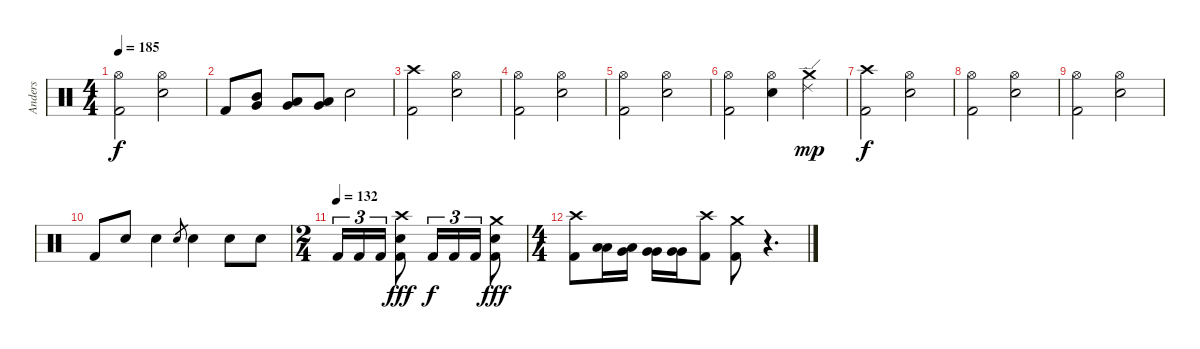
\track ("Anders" "Anders") {instrument percussion}
\staff {score}
\articulation defaults
\ts (4 4)
\tempo 185
\clef neutral
\ks c
("Hi-Hat (open)" "Kick (hit) 2").2{dy f} ("Hi-Hat (open)" "Electric Snare (hit)").2 |
"Kick (hit) 2".8 ("Mid Tom (hit)" "Very Low Tom (hit)").8 ("Low Tom (hit)" "Very Low Tom (hit)").8 ("Low Floor Tom (hit)" "Very Low Tom (hit)").8 "Electric Snare (hit)".2 |
("Crash high (hit)" "Kick (hit) 2").2 ("Hi-Hat (open)" "Electric Snare (hit)").2 |
("Hi-Hat (open)" "Kick (hit) 2").2 ("Hi-Hat (open)" "Electric Snare (hit)").2 |
("Hi-Hat (open)" "Kick (hit) 2").2 ("Hi-Hat (open)" "Electric Snare (hit)").2 |
("Hi-Hat (open)" "Kick (hit) 2").2 ("Hi-Hat (open)" "Electric Snare (hit)").4 ("Crash medium (hit)" "Ride (edge) 2").4{dy mp} |
("Crash high (hit)" "Kick (hit) 2").2{dy f} ("Hi-Hat (open)" "Electric Snare (hit)").2 |
("Hi-Hat (open)" "Kick (hit) 2").2 ("Hi-Hat (open)" "Electric Snare (hit)").2 |
("Hi-Hat (open)" "Kick (hit) 2").2 ("Hi-Hat (open)" "Electric Snare (hit)").2 |
\section ("" "")
"Kick (hit) 2".8 "Electric Snare (hit)".8 "Electric Snare (hit)".4 "Electric Snare (hit)".8{gr} "Electric Snare (hit)".4 "Electric Snare (hit)".8 "Electric Snare (hit)".8 |
\ts (2 4)
\section ("" "")
\tempo (132)
"Kick (hit) 2".16{tu (3 2)} "Kick (hit) 2".16{tu (3 2)} "Kick (hit) 2".16{tu (3 2)} ("Crash high (hit)" "Electric Snare (hit)" "Kick (hit) 2").8{dy fff} "Kick (hit) 2".16{tu (3 2) dy f} "Kick (hit) 2".16{tu (3 2)} "Kick (hit) 2".16{tu (3 2)} ("Crash medium (hit)" "Electric Snare (hit)" "Kick (hit) 2").8{dy fff} |
\ts (4 4)
("Crash high (hit)" "Kick (hit) 2").8 ("Low Tom (hit)" "Low Tom (hit)").16 ("Very Low Tom (hit)" "Low Tom (hit)").16 ("Very Low Tom (hit)" "Very Low Tom (hit)").16 ("Very Low Tom (hit)" "Very Low Tom (hit)").16 ("Crash high (hit)" "Kick (hit) 2").8 ("Crash medium (hit)" "Kick (hit) 2").8 r.4{d}
